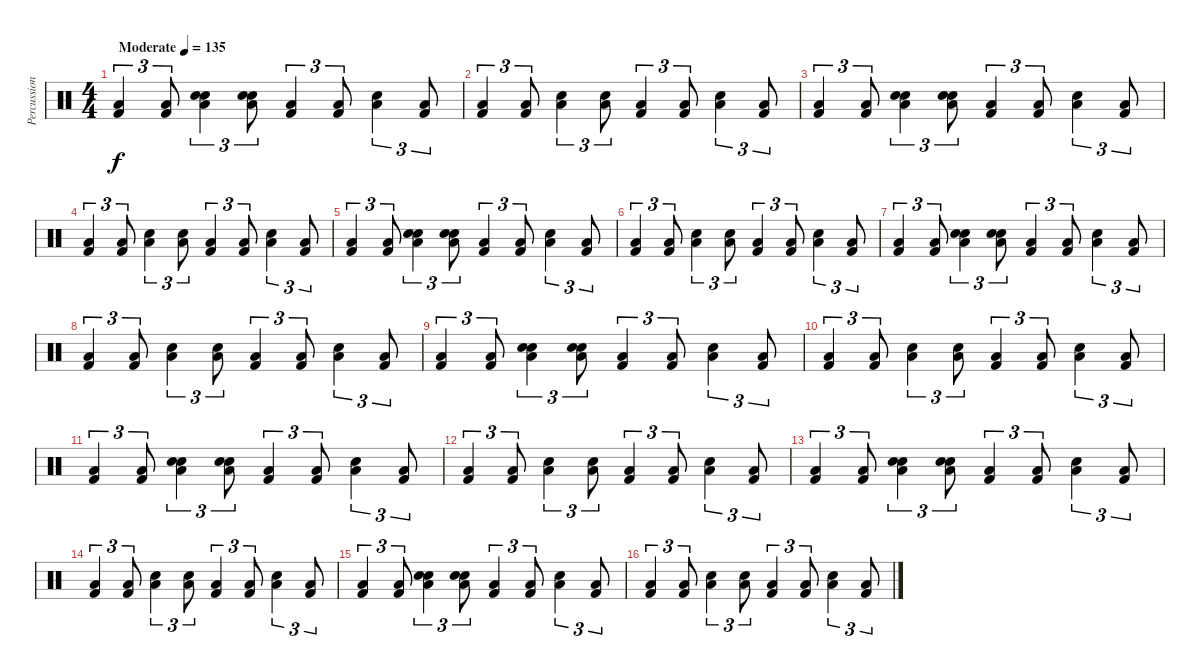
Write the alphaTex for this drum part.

\track ("Percussion" "Percussion") {instrument percussion}
\staff {score}
\articulation defaults
\ts (4 4)
\tempo (135 "Moderate")
\clef neutral
\ks c
("Low Floor Tom (hit)" "Kick (hit) 2").4{tu (3 2) dy f} ("Low Floor Tom (hit)" "Kick (hit) 2").8{tu (3 2)} ("Hand Clap (hit)" "Low Floor Tom (hit)" "Electric Snare (hit)").4{tu (3 2)} ("Hand Clap (hit)" "Low Floor Tom (hit)" "Electric Snare (hit)").8{tu (3 2)} ("Low Floor Tom (hit)" "Kick (hit) 2").4{tu (3 2)} ("Low Floor Tom (hit)" "Kick (hit) 2").8{tu (3 2)} ("Low Floor Tom (hit)" "Electric Snare (hit)").4{tu (3 2)} ("Low Floor Tom (hit)" "Kick (hit) 2").8{tu (3 2)} |
("Low Floor Tom (hit)" "Kick (hit) 2").4{tu (3 2)} ("Low Floor Tom (hit)" "Kick (hit) 2").8{tu (3 2)} ("Low Floor Tom (hit)" "Electric Snare (hit)").4{tu (3 2)} ("Low Floor Tom (hit)" "Electric Snare (hit)").8{tu (3 2)} ("Low Floor Tom (hit)" "Kick (hit) 2").4{tu (3 2)} ("Low Floor Tom (hit)" "Kick (hit) 2").8{tu (3 2)} ("Low Floor Tom (hit)" "Electric Snare (hit)").4{tu (3 2)} ("Low Floor Tom (hit)" "Kick (hit) 2").8{tu (3 2)} |
("Low Floor Tom (hit)" "Kick (hit) 2").4{tu (3 2)} ("Low Floor Tom (hit)" "Kick (hit) 2").8{tu (3 2)} ("Hand Clap (hit)" "Low Floor Tom (hit)" "Electric Snare (hit)").4{tu (3 2)} ("Hand Clap (hit)" "Low Floor Tom (hit)" "Electric Snare (hit)").8{tu (3 2)} ("Low Floor Tom (hit)" "Kick (hit) 2").4{tu (3 2)} ("Low Floor Tom (hit)" "Kick (hit) 2").8{tu (3 2)} ("Low Floor Tom (hit)" "Electric Snare (hit)").4{tu (3 2)} ("Low Floor Tom (hit)" "Kick (hit) 2").8{tu (3 2)} |
("Low Floor Tom (hit)" "Kick (hit) 2").4{tu (3 2)} ("Low Floor Tom (hit)" "Kick (hit) 2").8{tu (3 2)} ("Low Floor Tom (hit)" "Electric Snare (hit)").4{tu (3 2)} ("Low Floor Tom (hit)" "Electric Snare (hit)").8{tu (3 2)} ("Low Floor Tom (hit)" "Kick (hit) 2").4{tu (3 2)} ("Low Floor Tom (hit)" "Kick (hit) 2").8{tu (3 2)} ("Low Floor Tom (hit)" "Electric Snare (hit)").4{tu (3 2)} ("Low Floor Tom (hit)" "Kick (hit) 2").8{tu (3 2)} |
("Low Floor Tom (hit)" "Kick (hit) 2").4{tu (3 2)} ("Low Floor Tom (hit)" "Kick (hit) 2").8{tu (3 2)} ("Hand Clap (hit)" "Low Floor Tom (hit)" "Electric Snare (hit)").4{tu (3 2)} ("Hand Clap (hit)" "Low Floor Tom (hit)" "Electric Snare (hit)").8{tu (3 2)} ("Low Floor Tom (hit)" "Kick (hit) 2").4{tu (3 2)} ("Low Floor Tom (hit)" "Kick (hit) 2").8{tu (3 2)} ("Low Floor Tom (hit)" "Electric Snare (hit)").4{tu (3 2)} ("Low Floor Tom (hit)" "Kick (hit) 2").8{tu (3 2)} |
("Low Floor Tom (hit)" "Kick (hit) 2").4{tu (3 2)} ("Low Floor Tom (hit)" "Kick (hit) 2").8{tu (3 2)} ("Low Floor Tom (hit)" "Electric Snare (hit)").4{tu (3 2)} ("Low Floor Tom (hit)" "Electric Snare (hit)").8{tu (3 2)} ("Low Floor Tom (hit)" "Kick (hit) 2").4{tu (3 2)} ("Low Floor Tom (hit)" "Kick (hit) 2").8{tu (3 2)} ("Low Floor Tom (hit)" "Electric Snare (hit)").4{tu (3 2)} ("Low Floor Tom (hit)" "Kick (hit) 2").8{tu (3 2)} |
("Low Floor Tom (hit)" "Kick (hit) 2").4{tu (3 2)} ("Low Floor Tom (hit)" "Kick (hit) 2").8{tu (3 2)} ("Hand Clap (hit)" "Low Floor Tom (hit)" "Electric Snare (hit)").4{tu (3 2)} ("Hand Clap (hit)" "Low Floor Tom (hit)" "Electric Snare (hit)").8{tu (3 2)} ("Low Floor Tom (hit)" "Kick (hit) 2").4{tu (3 2)} ("Low Floor Tom (hit)" "Kick (hit) 2").8{tu (3 2)} ("Low Floor Tom (hit)" "Electric Snare (hit)").4{tu (3 2)} ("Low Floor Tom (hit)" "Kick (hit) 2").8{tu (3 2)} |
("Low Floor Tom (hit)" "Kick (hit) 2").4{tu (3 2)} ("Low Floor Tom (hit)" "Kick (hit) 2").8{tu (3 2)} ("Low Floor Tom (hit)" "Electric Snare (hit)").4{tu (3 2)} ("Low Floor Tom (hit)" "Electric Snare (hit)").8{tu (3 2)} ("Low Floor Tom (hit)" "Kick (hit) 2").4{tu (3 2)} ("Low Floor Tom (hit)" "Kick (hit) 2").8{tu (3 2)} ("Low Floor Tom (hit)" "Electric Snare (hit)").4{tu (3 2)} ("Low Floor Tom (hit)" "Kick (hit) 2").8{tu (3 2)} |
("Low Floor Tom (hit)" "Kick (hit) 2").4{tu (3 2)} ("Low Floor Tom (hit)" "Kick (hit) 2").8{tu (3 2)} ("Hand Clap (hit)" "Low Floor Tom (hit)" "Electric Snare (hit)").4{tu (3 2)} ("Hand Clap (hit)" "Low Floor Tom (hit)" "Electric Snare (hit)").8{tu (3 2)} ("Low Floor Tom (hit)" "Kick (hit) 2").4{tu (3 2)} ("Low Floor Tom (hit)" "Kick (hit) 2").8{tu (3 2)} ("Low Floor Tom (hit)" "Electric Snare (hit)").4{tu (3 2)} ("Low Floor Tom (hit)" "Kick (hit) 2").8{tu (3 2)} |
("Low Floor Tom (hit)" "Kick (hit) 2").4{tu (3 2)} ("Low Floor Tom (hit)" "Kick (hit) 2").8{tu (3 2)} ("Low Floor Tom (hit)" "Electric Snare (hit)").4{tu (3 2)} ("Low Floor Tom (hit)" "Electric Snare (hit)").8{tu (3 2)} ("Low Floor Tom (hit)" "Kick (hit) 2").4{tu (3 2)} ("Low Floor Tom (hit)" "Kick (hit) 2").8{tu (3 2)} ("Low Floor Tom (hit)" "Electric Snare (hit)").4{tu (3 2)} ("Low Floor Tom (hit)" "Kick (hit) 2").8{tu (3 2)} |
("Low Floor Tom (hit)" "Kick (hit) 2").4{tu (3 2)} ("Low Floor Tom (hit)" "Kick (hit) 2").8{tu (3 2)} ("Hand Clap (hit)" "Low Floor Tom (hit)" "Electric Snare (hit)").4{tu (3 2)} ("Hand Clap (hit)" "Low Floor Tom (hit)" "Electric Snare (hit)").8{tu (3 2)} ("Low Floor Tom (hit)" "Kick (hit) 2").4{tu (3 2)} ("Low Floor Tom (hit)" "Kick (hit) 2").8{tu (3 2)} ("Low Floor Tom (hit)" "Electric Snare (hit)").4{tu (3 2)} ("Low Floor Tom (hit)" "Kick (hit) 2").8{tu (3 2)} |
("Low Floor Tom (hit)" "Kick (hit) 2").4{tu (3 2)} ("Low Floor Tom (hit)" "Kick (hit) 2").8{tu (3 2)} ("Low Floor Tom (hit)" "Electric Snare (hit)").4{tu (3 2)} ("Low Floor Tom (hit)" "Electric Snare (hit)").8{tu (3 2)} ("Low Floor Tom (hit)" "Kick (hit) 2").4{tu (3 2)} ("Low Floor Tom (hit)" "Kick (hit) 2").8{tu (3 2)} ("Low Floor Tom (hit)" "Electric Snare (hit)").4{tu (3 2)} ("Low Floor Tom (hit)" "Kick (hit) 2").8{tu (3 2)} |
("Low Floor Tom (hit)" "Kick (hit) 2").4{tu (3 2)} ("Low Floor Tom (hit)" "Kick (hit) 2").8{tu (3 2)} ("Hand Clap (hit)" "Low Floor Tom (hit)" "Electric Snare (hit)").4{tu (3 2)} ("Hand Clap (hit)" "Low Floor Tom (hit)" "Electric Snare (hit)").8{tu (3 2)} ("Low Floor Tom (hit)" "Kick (hit) 2").4{tu (3 2)} ("Low Floor Tom (hit)" "Kick (hit) 2").8{tu (3 2)} ("Low Floor Tom (hit)" "Electric Snare (hit)").4{tu (3 2)} ("Low Floor Tom (hit)" "Kick (hit) 2").8{tu (3 2)} |
("Low Floor Tom (hit)" "Kick (hit) 2").4{tu (3 2)} ("Low Floor Tom (hit)" "Kick (hit) 2").8{tu (3 2)} ("Low Floor Tom (hit)" "Electric Snare (hit)").4{tu (3 2)} ("Low Floor Tom (hit)" "Electric Snare (hit)").8{tu (3 2)} ("Low Floor Tom (hit)" "Kick (hit) 2").4{tu (3 2)} ("Low Floor Tom (hit)" "Kick (hit) 2").8{tu (3 2)} ("Low Floor Tom (hit)" "Electric Snare (hit)").4{tu (3 2)} ("Low Floor Tom (hit)" "Kick (hit) 2").8{tu (3 2)} |
("Low Floor Tom (hit)" "Kick (hit) 2").4{tu (3 2)} ("Low Floor Tom (hit)" "Kick (hit) 2").8{tu (3 2)} ("Hand Clap (hit)" "Low Floor Tom (hit)" "Electric Snare (hit)").4{tu (3 2)} ("Hand Clap (hit)" "Low Floor Tom (hit)" "Electric Snare (hit)").8{tu (3 2)} ("Low Floor Tom (hit)" "Kick (hit) 2").4{tu (3 2)} ("Low Floor Tom (hit)" "Kick (hit) 2").8{tu (3 2)} ("Low Floor Tom (hit)" "Electric Snare (hit)").4{tu (3 2)} ("Low Floor Tom (hit)" "Kick (hit) 2").8{tu (3 2)} |
("Low Floor Tom (hit)" "Kick (hit) 2").4{tu (3 2)} ("Low Floor Tom (hit)" "Kick (hit) 2").8{tu (3 2)} ("Low Floor Tom (hit)" "Electric Snare (hit)").4{tu (3 2)} ("Low Floor Tom (hit)" "Electric Snare (hit)").8{tu (3 2)} ("Low Floor Tom (hit)" "Kick (hit) 2").4{tu (3 2)} ("Low Floor Tom (hit)" "Kick (hit) 2").8{tu (3 2)} ("Low Floor Tom (hit)" "Electric Snare (hit)").4{tu (3 2)} ("Low Floor Tom (hit)" "Kick (hit) 2").8{tu (3 2)}
